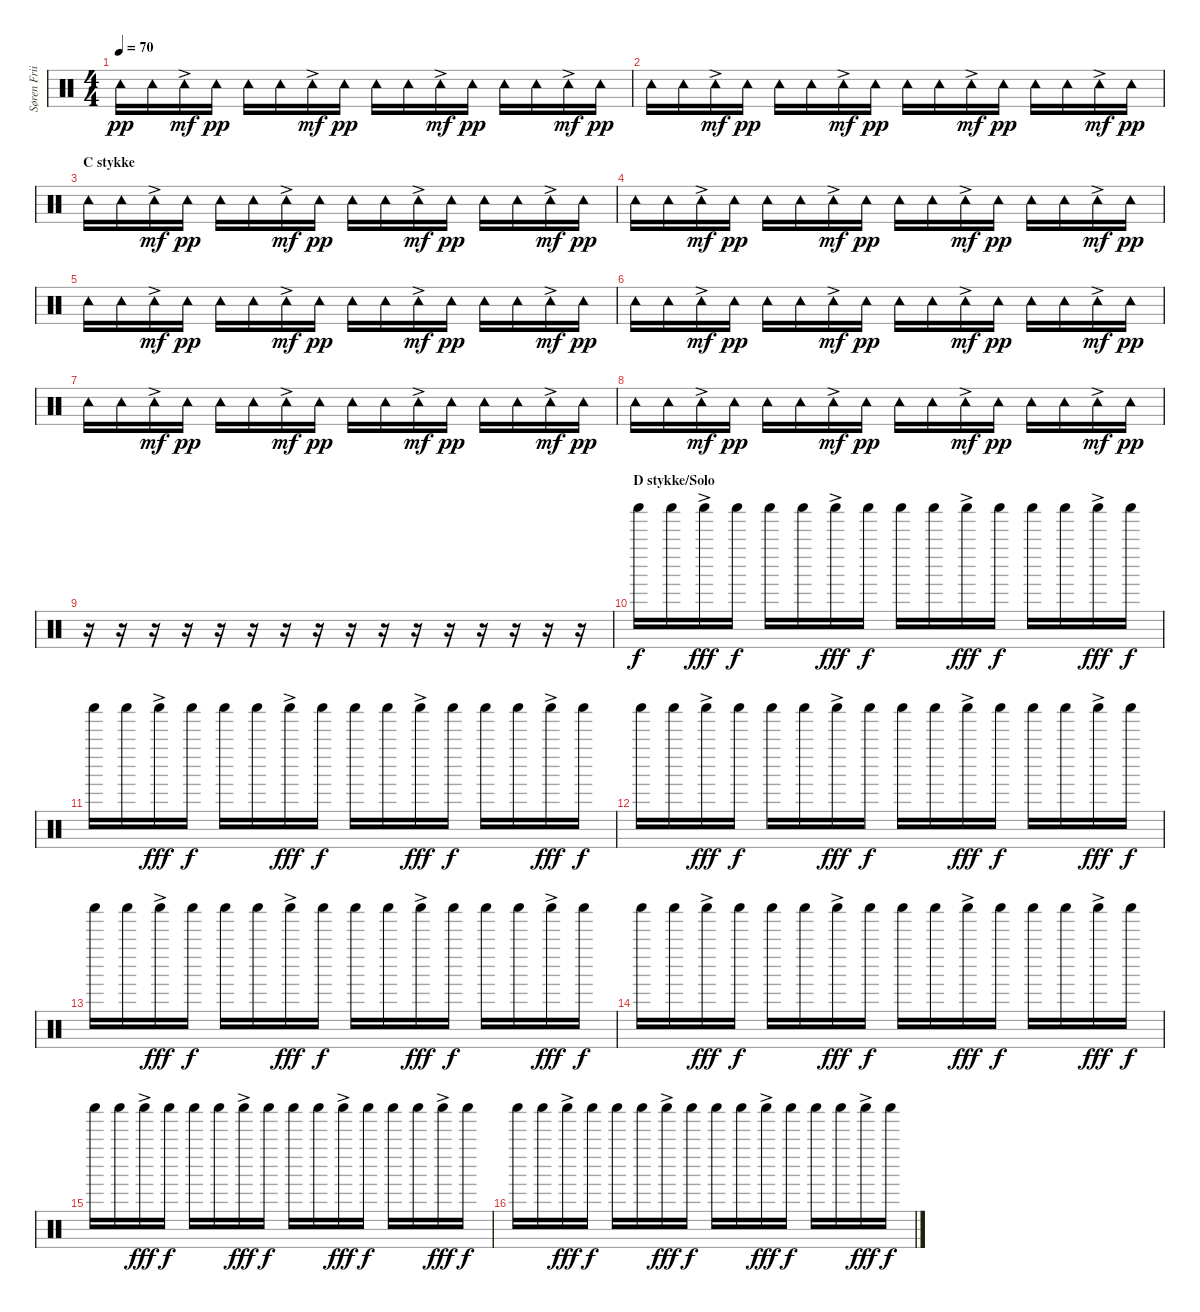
\track ("Søren Friis (Percussion)" "Søren Frii") {instrument percussion}
\staff {score}
\articulation defaults
\ts (4 4)
\tempo 70
\clef neutral
\ks c "Tambourine (hit)".16{dy pp} "Tambourine (hit)".16 "Tambourine (hit)"{ac}.16{dy mf} "Tambourine (hit)".16{dy pp} "Tambourine (hit)".16 "Tambourine (hit)".16 "Tambourine (hit)"{ac}.16{dy mf} "Tambourine (hit)".16{dy pp} "Tambourine (hit)".16 "Tambourine (hit)".16 "Tambourine (hit)"{ac}.16{dy mf} "Tambourine (hit)".16{dy pp} "Tambourine (hit)".16 "Tambourine (hit)".16 "Tambourine (hit)"{ac}.16{dy mf} "Tambourine (hit)".16{dy pp}
|
"Tambourine (hit)".16 "Tambourine (hit)".16 "Tambourine (hit)"{ac}.16{dy mf} "Tambourine (hit)".16{dy pp} "Tambourine (hit)".16 "Tambourine (hit)".16 "Tambourine (hit)"{ac}.16{dy mf} "Tambourine (hit)".16{dy pp} "Tambourine (hit)".16 "Tambourine (hit)".16 "Tambourine (hit)"{ac}.16{dy mf} "Tambourine (hit)".16{dy pp} "Tambourine (hit)".16 "Tambourine (hit)".16 "Tambourine (hit)"{ac}.16{dy mf} "Tambourine (hit)".16{dy pp} |
\section ("" "C stykke")
"Tambourine (hit)".16 "Tambourine (hit)".16 "Tambourine (hit)"{ac}.16{dy mf} "Tambourine (hit)".16{dy pp} "Tambourine (hit)".16 "Tambourine (hit)".16 "Tambourine (hit)"{ac}.16{dy mf} "Tambourine (hit)".16{dy pp} "Tambourine (hit)".16 "Tambourine (hit)".16 "Tambourine (hit)"{ac}.16{dy mf} "Tambourine (hit)".16{dy pp} "Tambourine (hit)".16 "Tambourine (hit)".16 "Tambourine (hit)"{ac}.16{dy mf} "Tambourine (hit)".16{dy pp} |
"Tambourine (hit)".16 "Tambourine (hit)".16 "Tambourine (hit)"{ac}.16{dy mf} "Tambourine (hit)".16{dy pp} "Tambourine (hit)".16 "Tambourine (hit)".16 "Tambourine (hit)"{ac}.16{dy mf} "Tambourine (hit)".16{dy pp} "Tambourine (hit)".16 "Tambourine (hit)".16 "Tambourine (hit)"{ac}.16{dy mf} "Tambourine (hit)".16{dy pp} "Tambourine (hit)".16 "Tambourine (hit)".16 "Tambourine (hit)"{ac}.16{dy mf} "Tambourine (hit)".16{dy pp} |
"Tambourine (hit)".16 "Tambourine (hit)".16 "Tambourine (hit)"{ac}.16{dy mf} "Tambourine (hit)".16{dy pp} "Tambourine (hit)".16 "Tambourine (hit)".16 "Tambourine (hit)"{ac}.16{dy mf} "Tambourine (hit)".16{dy pp} "Tambourine (hit)".16 "Tambourine (hit)".16 "Tambourine (hit)"{ac}.16{dy mf} "Tambourine (hit)".16{dy pp} "Tambourine (hit)".16 "Tambourine (hit)".16 "Tambourine (hit)"{ac}.16{dy mf} "Tambourine (hit)".16{dy pp} |
"Tambourine (hit)".16 "Tambourine (hit)".16 "Tambourine (hit)"{ac}.16{dy mf} "Tambourine (hit)".16{dy pp} "Tambourine (hit)".16 "Tambourine (hit)".16 "Tambourine (hit)"{ac}.16{dy mf} "Tambourine (hit)".16{dy pp} "Tambourine (hit)".16 "Tambourine (hit)".16 "Tambourine (hit)"{ac}.16{dy mf} "Tambourine (hit)".16{dy pp} "Tambourine (hit)".16 "Tambourine (hit)".16 "Tambourine (hit)"{ac}.16{dy mf} "Tambourine (hit)".16{dy pp} |
"Tambourine (hit)".16 "Tambourine (hit)".16 "Tambourine (hit)"{ac}.16{dy mf} "Tambourine (hit)".16{dy pp} "Tambourine (hit)".16 "Tambourine (hit)".16 "Tambourine (hit)"{ac}.16{dy mf} "Tambourine (hit)".16{dy pp} "Tambourine (hit)".16 "Tambourine (hit)".16 "Tambourine (hit)"{ac}.16{dy mf} "Tambourine (hit)".16{dy pp} "Tambourine (hit)".16 "Tambourine (hit)".16 "Tambourine (hit)"{ac}.16{dy mf} "Tambourine (hit)".16{dy pp} |
"Tambourine (hit)".16 "Tambourine (hit)".16 "Tambourine (hit)"{ac}.16{dy mf} "Tambourine (hit)".16{dy pp} "Tambourine (hit)".16 "Tambourine (hit)".16 "Tambourine (hit)"{ac}.16{dy mf} "Tambourine (hit)".16{dy pp} "Tambourine (hit)".16 "Tambourine (hit)".16 "Tambourine (hit)"{ac}.16{dy mf} "Tambourine (hit)".16{dy pp} "Tambourine (hit)".16 "Tambourine (hit)".16 "Tambourine (hit)"{ac}.16{dy mf} "Tambourine (hit)".16{dy pp} |
r.16 r.16 r.16 r.16 r.16 r.16 r.16 r.16 r.16 r.16 r.16 r.16 r.16 r.16 r.16 r.16 |
\section ("" "D stykke/Solo")
"Shaker (hit)".16{dy f} "Shaker (hit)".16 "Shaker (hit)"{ac}.16{dy fff} "Shaker (hit)".16{dy f} "Shaker (hit)".16 "Shaker (hit)".16 "Shaker (hit)"{ac}.16{dy fff} "Shaker (hit)".16{dy f} "Shaker (hit)".16 "Shaker (hit)".16 "Shaker (hit)"{ac}.16{dy fff} "Shaker (hit)".16{dy f} "Shaker (hit)".16 "Shaker (hit)".16 "Shaker (hit)"{ac}.16{dy fff} "Shaker (hit)".16{dy f} |
"Shaker (hit)".16 "Shaker (hit)".16 "Shaker (hit)"{ac}.16{dy fff} "Shaker (hit)".16{dy f} "Shaker (hit)".16 "Shaker (hit)".16 "Shaker (hit)"{ac}.16{dy fff} "Shaker (hit)".16{dy f} "Shaker (hit)".16 "Shaker (hit)".16 "Shaker (hit)"{ac}.16{dy fff} "Shaker (hit)".16{dy f} "Shaker (hit)".16 "Shaker (hit)".16 "Shaker (hit)"{ac}.16{dy fff} "Shaker (hit)".16{dy f} |
"Shaker (hit)".16 "Shaker (hit)".16 "Shaker (hit)"{ac}.16{dy fff} "Shaker (hit)".16{dy f} "Shaker (hit)".16 "Shaker (hit)".16 "Shaker (hit)"{ac}.16{dy fff} "Shaker (hit)".16{dy f} "Shaker (hit)".16 "Shaker (hit)".16 "Shaker (hit)"{ac}.16{dy fff} "Shaker (hit)".16{dy f} "Shaker (hit)".16 "Shaker (hit)".16 "Shaker (hit)"{ac}.16{dy fff} "Shaker (hit)".16{dy f} |
"Shaker (hit)".16 "Shaker (hit)".16 "Shaker (hit)"{ac}.16{dy fff} "Shaker (hit)".16{dy f} "Shaker (hit)".16 "Shaker (hit)".16 "Shaker (hit)"{ac}.16{dy fff} "Shaker (hit)".16{dy f} "Shaker (hit)".16 "Shaker (hit)".16 "Shaker (hit)"{ac}.16{dy fff} "Shaker (hit)".16{dy f} "Shaker (hit)".16 "Shaker (hit)".16 "Shaker (hit)"{ac}.16{dy fff} "Shaker (hit)".16{dy f} |
"Shaker (hit)".16 "Shaker (hit)".16 "Shaker (hit)"{ac}.16{dy fff} "Shaker (hit)".16{dy f} "Shaker (hit)".16 "Shaker (hit)".16 "Shaker (hit)"{ac}.16{dy fff} "Shaker (hit)".16{dy f} "Shaker (hit)".16 "Shaker (hit)".16 "Shaker (hit)"{ac}.16{dy fff} "Shaker (hit)".16{dy f} "Shaker (hit)".16 "Shaker (hit)".16 "Shaker (hit)"{ac}.16{dy fff} "Shaker (hit)".16{dy f} |
"Shaker (hit)".16 "Shaker (hit)".16 "Shaker (hit)"{ac}.16{dy fff} "Shaker (hit)".16{dy f} "Shaker (hit)".16 "Shaker (hit)".16 "Shaker (hit)"{ac}.16{dy fff} "Shaker (hit)".16{dy f} "Shaker (hit)".16 "Shaker (hit)".16 "Shaker (hit)"{ac}.16{dy fff} "Shaker (hit)".16{dy f} "Shaker (hit)".16 "Shaker (hit)".16 "Shaker (hit)"{ac}.16{dy fff} "Shaker (hit)".16{dy f} |
"Shaker (hit)".16 "Shaker (hit)".16 "Shaker (hit)"{ac}.16{dy fff} "Shaker (hit)".16{dy f} "Shaker (hit)".16 "Shaker (hit)".16 "Shaker (hit)"{ac}.16{dy fff} "Shaker (hit)".16{dy f} "Shaker (hit)".16 "Shaker (hit)".16 "Shaker (hit)"{ac}.16{dy fff} "Shaker (hit)".16{dy f} "Shaker (hit)".16 "Shaker (hit)".16 "Shaker (hit)"{ac}.16{dy fff} "Shaker (hit)".16{dy f}
